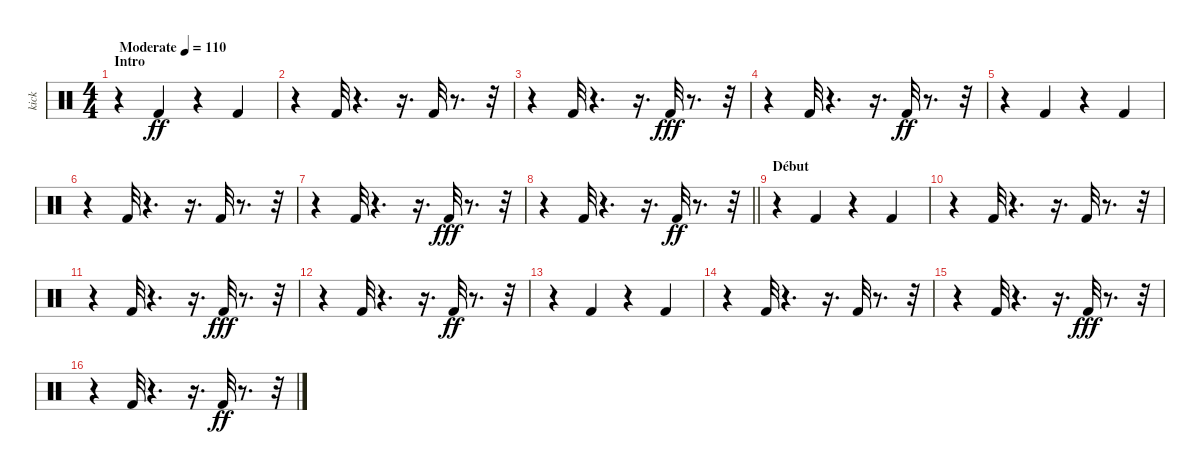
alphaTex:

\track ("kick    " "kick    ") {instrument percussion}
\staff {score}
\articulation defaults
\ts (4 4)
\section ("" "Intro")
\tempo (110 "Moderate")
\clef neutral
\ks c
r.4{dy ff} "Kick (hit) 2".4 r.4 "Kick (hit) 2".4 |
r.4 "Kick (hit) 2".32 r.4{d} r.16{d} "Kick (hit) 2".32 r.8{d} r.32 |
r.4 "Kick (hit) 2".32 r.4{d} r.16{d} "Kick (hit) 2".32{dy fff} r.8{d} r.32 |
r.4 "Kick (hit) 2".32 r.4{d} r.16{d} "Kick (hit) 2".32{dy ff} r.8{d} r.32 |
r.4 "Kick (hit) 2".4 r.4 "Kick (hit) 2".4 |
r.4 "Kick (hit) 2".32 r.4{d} r.16{d} "Kick (hit) 2".32 r.8{d} r.32 |
r.4 "Kick (hit) 2".32 r.4{d} r.16{d} "Kick (hit) 2".32{dy fff} r.8{d} r.32 |
\barLineRight lightlight
r.4 "Kick (hit) 2".32 r.4{d} r.16{d} "Kick (hit) 2".32{dy ff} r.8{d} r.32 |
\section ("" "Début")
r.4 "Kick (hit) 2".4 r.4 "Kick (hit) 2".4 |
r.4 "Kick (hit) 2".32 r.4{d} r.16{d} "Kick (hit) 2".32 r.8{d} r.32 |
r.4 "Kick (hit) 2".32 r.4{d} r.16{d} "Kick (hit) 2".32{dy fff} r.8{d} r.32 |
r.4 "Kick (hit) 2".32 r.4{d} r.16{d} "Kick (hit) 2".32{dy ff} r.8{d} r.32 |
r.4 "Kick (hit) 2".4 r.4 "Kick (hit) 2".4 |
r.4 "Kick (hit) 2".32 r.4{d} r.16{d} "Kick (hit) 2".32 r.8{d} r.32 |
r.4 "Kick (hit) 2".32 r.4{d} r.16{d} "Kick (hit) 2".32{dy fff} r.8{d} r.32 |
r.4 "Kick (hit) 2".32 r.4{d} r.16{d} "Kick (hit) 2".32{dy ff} r.8{d} r.32
